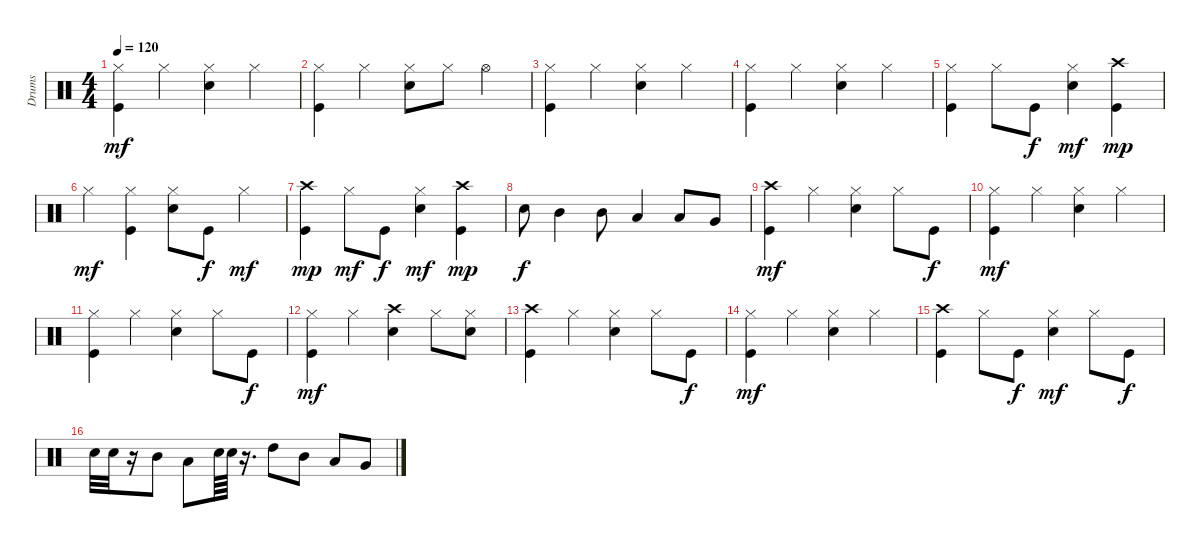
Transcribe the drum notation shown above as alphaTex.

\track ("Drums" "Drums") {instrument percussion}
\staff {score}
\articulation defaults
\ts (4 4)
\tempo 120
\clef neutral
\ks c
("Hi-Hat (closed)" "Kick (hit)").4{dy mf} "Hi-Hat (closed)".4 ("Hi-Hat (closed)" "Snare (hit) 2").4 "Hi-Hat (closed)".4 |
("Hi-Hat (closed)" "Kick (hit)").4 "Hi-Hat (closed)".4 ("Hi-Hat (closed)" "Snare (hit) 2").8 "Hi-Hat (closed)".8 "Hi-Hat (open)".4 |
("Hi-Hat (closed)" "Kick (hit)").4 "Hi-Hat (closed)".4 ("Hi-Hat (closed)" "Snare (hit) 2").4 "Hi-Hat (closed)".4 |
("Hi-Hat (closed)" "Kick (hit)").4 "Hi-Hat (closed)".4 ("Hi-Hat (closed)" "Snare (hit) 2").4 "Hi-Hat (closed)".4 |
("Hi-Hat (closed)" "Kick (hit)").4 "Hi-Hat (closed)".8 "Kick (hit)".8{dy f} ("Hi-Hat (closed)" "Snare (hit) 2").4{dy mf} ("Crash high (hit)" "Kick (hit)").4{dy mp} |
"Hi-Hat (closed)".4{dy mf} ("Hi-Hat (closed)" "Kick (hit)").4 ("Hi-Hat (closed)" "Snare (hit) 2").8 "Kick (hit)".8{dy f} "Hi-Hat (closed)".4{dy mf} |
("Crash high (hit)" "Kick (hit)").4{dy mp} "Hi-Hat (closed)".8{dy mf} "Kick (hit)".8{dy f} ("Hi-Hat (closed)" "Snare (hit) 2").4{dy mf} ("Crash high (hit)" "Kick (hit)").4{dy mp} |
"Snare (hit) 2".8{dy f} "Mid Tom (hit)".4 "Mid Tom (hit)".8 "Low Tom (hit)".4 "Low Tom (hit)".8 "Very Low Tom (hit)".8 |
("Crash high (hit)" "Kick (hit)").4{dy mf} "Hi-Hat (closed)".4 ("Hi-Hat (closed)" "Snare (hit) 2").4 "Hi-Hat (closed)".8 "Kick (hit)".8{dy f} |
("Hi-Hat (closed)" "Kick (hit)").4{dy mf} "Hi-Hat (closed)".4 ("Hi-Hat (closed)" "Snare (hit) 2").4 "Hi-Hat (closed)".4 |
("Hi-Hat (closed)" "Kick (hit)").4 "Hi-Hat (closed)".4 ("Hi-Hat (closed)" "Snare (hit) 2").4 "Hi-Hat (closed)".8 "Kick (hit)".8{dy f} |
("Hi-Hat (closed)" "Kick (hit)").4{dy mf} "Hi-Hat (closed)".4 ("Crash high (hit)" "Snare (hit) 2").4 "Hi-Hat (closed)".8 ("Hi-Hat (closed)" "Snare (hit) 2").8 |
("Crash high (hit)" "Kick (hit)").4 "Hi-Hat (closed)".4 ("Hi-Hat (closed)" "Snare (hit) 2").4 "Hi-Hat (closed)".8 "Kick (hit)".8{dy f} |
("Hi-Hat (closed)" "Kick (hit)").4{dy mf} "Hi-Hat (closed)".4 ("Hi-Hat (closed)" "Snare (hit) 2").4 "Hi-Hat (closed)".4 |
("Crash high (hit)" "Kick (hit)").4 "Hi-Hat (closed)".8 "Kick (hit)".8{dy f} ("Hi-Hat (closed)" "Snare (hit) 2").4{dy mf} "Hi-Hat (closed)".8 "Kick (hit)".8{dy f} |
"Snare (hit) 2".32 "Snare (hit) 2".32 r.16 "Mid Tom (hit)".8 "Low Tom (hit)".8 "Snare (hit) 2".64 "Snare (hit) 2".64 r.16{d} "High Tom (hit)".8 "Mid Tom (hit)".8 "Low Tom (hit)".8 "Very Low Tom (hit)".8
